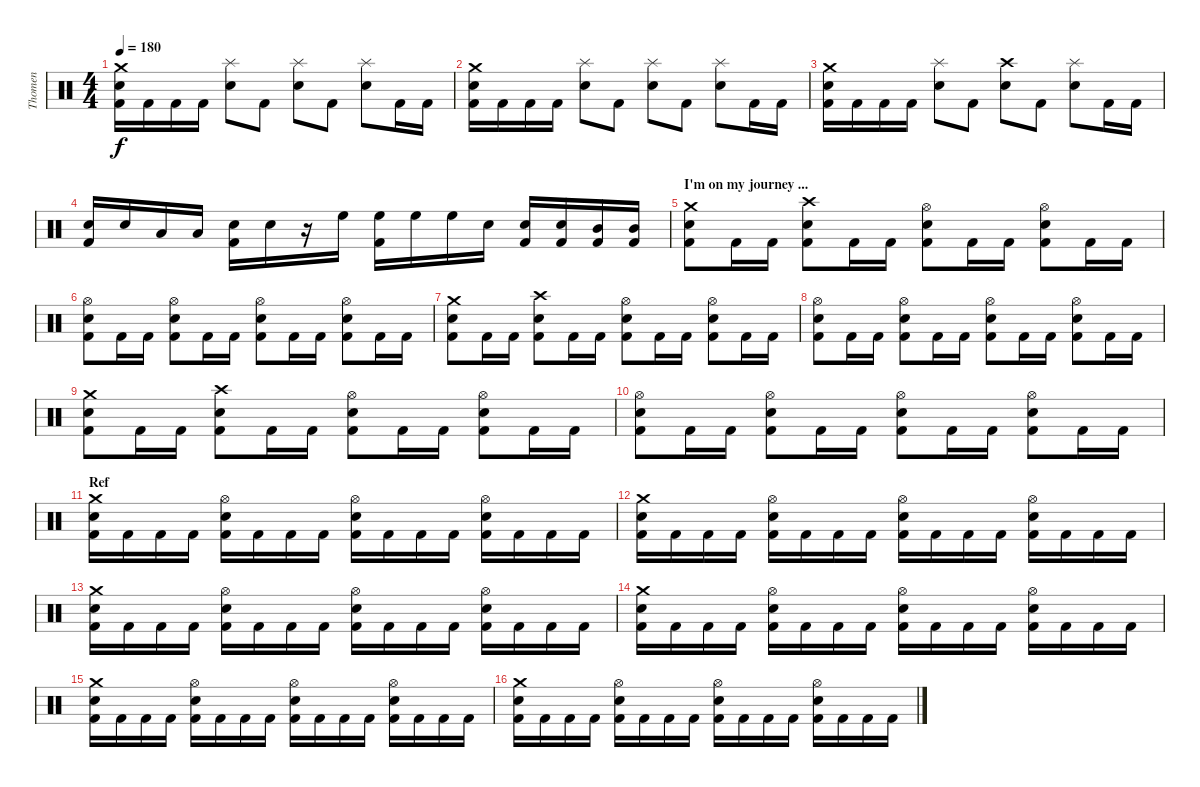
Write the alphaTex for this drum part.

\track ("Thomen" "Thomen") {instrument percussion}
\staff {score}
\articulation defaults
\ts (4 4)
\tempo 180
\clef neutral
\ks c
("Kick (hit) 2" "Electric Snare (hit)" "Crash medium (hit)").16{dy f} "Kick (hit) 2".16 "Kick (hit) 2".16 "Kick (hit) 2".16 ("Electric Snare (hit)" "Splash (hit)").8 "Kick (hit) 2".8 ("Electric Snare (hit)" "Splash (hit)").8 "Kick (hit) 2".8 ("Electric Snare (hit)" "Splash (hit)").8 "Kick (hit) 2".16 "Kick (hit) 2".16 |
("Kick (hit) 2" "Electric Snare (hit)" "Crash medium (hit)").16 "Kick (hit) 2".16 "Kick (hit) 2".16 "Kick (hit) 2".16 ("Electric Snare (hit)" "Splash (hit)").8 "Kick (hit) 2".8 ("Electric Snare (hit)" "Splash (hit)").8 "Kick (hit) 2".8 ("Electric Snare (hit)" "Splash (hit)").8 "Kick (hit) 2".16 "Kick (hit) 2".16 |
("Kick (hit) 2" "Electric Snare (hit)" "Crash medium (hit)").16 "Kick (hit) 2".16 "Kick (hit) 2".16 "Kick (hit) 2".16 ("Electric Snare (hit)" "Splash (hit)").8 "Kick (hit) 2".8 ("Electric Snare (hit)" "Crash high (hit)").8 "Kick (hit) 2".8 ("Electric Snare (hit)" "Splash (hit)").8 "Kick (hit) 2".16 "Kick (hit) 2".16 |
("Kick (hit) 2" "Electric Snare (hit)").16 "Electric Snare (hit)".16 "Low Tom (hit)".16 "Low Tom (hit)".16 ("Kick (hit) 2" "Electric Snare (hit)").16 "Electric Snare (hit)".16 r.16 "High Floor Tom (hit)".16 ("Kick (hit) 2" "High Floor Tom (hit)").16 "High Floor Tom (hit)".16 "High Floor Tom (hit)".16 "Electric Snare (hit)".16 ("Kick (hit) 2" "Electric Snare (hit)").16 ("Kick (hit) 2" "Electric Snare (hit)").16 ("Kick (hit) 2" "Mid Tom (hit)").16 ("Kick (hit) 2" "Mid Tom (hit)").16 |
\section ("" "I'm on my journey ...")
("Kick (hit) 2" "Electric Snare (hit)" "Crash medium (hit)").8 "Kick (hit) 2".16 "Kick (hit) 2".16 ("Kick (hit) 2" "Electric Snare (hit)" "Crash high (hit)").8 "Kick (hit) 2".16 "Kick (hit) 2".16 ("Kick (hit) 2" "Electric Snare (hit)" "Hi-Hat (open)").8 "Kick (hit) 2".16 "Kick (hit) 2".16 ("Kick (hit) 2" "Electric Snare (hit)" "Hi-Hat (open)").8 "Kick (hit) 2".16 "Kick (hit) 2".16 |
("Kick (hit) 2" "Electric Snare (hit)" "Hi-Hat (open)").8 "Kick (hit) 2".16 "Kick (hit) 2".16 ("Kick (hit) 2" "Electric Snare (hit)" "Hi-Hat (open)").8 "Kick (hit) 2".16 "Kick (hit) 2".16 ("Kick (hit) 2" "Electric Snare (hit)" "Hi-Hat (open)").8 "Kick (hit) 2".16 "Kick (hit) 2".16 ("Kick (hit) 2" "Electric Snare (hit)" "Hi-Hat (open)").8 "Kick (hit) 2".16 "Kick (hit) 2".16 |
("Kick (hit) 2" "Electric Snare (hit)" "Crash medium (hit)").8 "Kick (hit) 2".16 "Kick (hit) 2".16 ("Kick (hit) 2" "Electric Snare (hit)" "Crash high (hit)").8 "Kick (hit) 2".16 "Kick (hit) 2".16 ("Kick (hit) 2" "Electric Snare (hit)" "Hi-Hat (open)").8 "Kick (hit) 2".16 "Kick (hit) 2".16 ("Kick (hit) 2" "Electric Snare (hit)" "Hi-Hat (open)").8 "Kick (hit) 2".16 "Kick (hit) 2".16 |
("Kick (hit) 2" "Electric Snare (hit)" "Hi-Hat (open)").8 "Kick (hit) 2".16 "Kick (hit) 2".16 ("Kick (hit) 2" "Electric Snare (hit)" "Hi-Hat (open)").8 "Kick (hit) 2".16 "Kick (hit) 2".16 ("Kick (hit) 2" "Electric Snare (hit)" "Hi-Hat (open)").8 "Kick (hit) 2".16 "Kick (hit) 2".16 ("Kick (hit) 2" "Electric Snare (hit)" "Hi-Hat (open)").8 "Kick (hit) 2".16 "Kick (hit) 2".16 |
("Kick (hit) 2" "Electric Snare (hit)" "Crash medium (hit)").8 "Kick (hit) 2".16 "Kick (hit) 2".16 ("Kick (hit) 2" "Electric Snare (hit)" "Crash high (hit)").8 "Kick (hit) 2".16 "Kick (hit) 2".16 ("Kick (hit) 2" "Electric Snare (hit)" "Hi-Hat (open)").8 "Kick (hit) 2".16 "Kick (hit) 2".16 ("Kick (hit) 2" "Electric Snare (hit)" "Hi-Hat (open)").8 "Kick (hit) 2".16 "Kick (hit) 2".16 |
("Kick (hit) 2" "Electric Snare (hit)" "Hi-Hat (open)").8 "Kick (hit) 2".16 "Kick (hit) 2".16 ("Kick (hit) 2" "Electric Snare (hit)" "Hi-Hat (open)").8 "Kick (hit) 2".16 "Kick (hit) 2".16 ("Kick (hit) 2" "Electric Snare (hit)" "Hi-Hat (open)").8 "Kick (hit) 2".16 "Kick (hit) 2".16 ("Kick (hit) 2" "Electric Snare (hit)" "Hi-Hat (open)").8 "Kick (hit) 2".16 "Kick (hit) 2".16 |
\section ("" "Ref")
("Kick (hit) 2" "Electric Snare (hit)" "Crash medium (hit)").16 "Kick (hit) 2".16 "Kick (hit) 2".16 "Kick (hit) 2".16 ("Kick (hit) 2" "Electric Snare (hit)" "Hi-Hat (open)").16 "Kick (hit) 2".16 "Kick (hit) 2".16 "Kick (hit) 2".16 ("Kick (hit) 2" "Electric Snare (hit)" "Hi-Hat (open)").16 "Kick (hit) 2".16 "Kick (hit) 2".16 "Kick (hit) 2".16 ("Kick (hit) 2" "Electric Snare (hit)" "Hi-Hat (open)").16 "Kick (hit) 2".16 "Kick (hit) 2".16 "Kick (hit) 2".16 |
("Kick (hit) 2" "Electric Snare (hit)" "Crash medium (hit)").16 "Kick (hit) 2".16 "Kick (hit) 2".16 "Kick (hit) 2".16 ("Kick (hit) 2" "Electric Snare (hit)" "Hi-Hat (open)").16 "Kick (hit) 2".16 "Kick (hit) 2".16 "Kick (hit) 2".16 ("Kick (hit) 2" "Electric Snare (hit)" "Hi-Hat (open)").16 "Kick (hit) 2".16 "Kick (hit) 2".16 "Kick (hit) 2".16 ("Kick (hit) 2" "Electric Snare (hit)" "Hi-Hat (open)").16 "Kick (hit) 2".16 "Kick (hit) 2".16 "Kick (hit) 2".16 |
("Kick (hit) 2" "Electric Snare (hit)" "Crash medium (hit)").16 "Kick (hit) 2".16 "Kick (hit) 2".16 "Kick (hit) 2".16 ("Kick (hit) 2" "Electric Snare (hit)" "Hi-Hat (open)").16 "Kick (hit) 2".16 "Kick (hit) 2".16 "Kick (hit) 2".16 ("Kick (hit) 2" "Electric Snare (hit)" "Hi-Hat (open)").16 "Kick (hit) 2".16 "Kick (hit) 2".16 "Kick (hit) 2".16 ("Kick (hit) 2" "Electric Snare (hit)" "Hi-Hat (open)").16 "Kick (hit) 2".16 "Kick (hit) 2".16 "Kick (hit) 2".16 |
("Kick (hit) 2" "Electric Snare (hit)" "Crash medium (hit)").16 "Kick (hit) 2".16 "Kick (hit) 2".16 "Kick (hit) 2".16 ("Kick (hit) 2" "Electric Snare (hit)" "Hi-Hat (open)").16 "Kick (hit) 2".16 "Kick (hit) 2".16 "Kick (hit) 2".16 ("Kick (hit) 2" "Electric Snare (hit)" "Hi-Hat (open)").16 "Kick (hit) 2".16 "Kick (hit) 2".16 "Kick (hit) 2".16 ("Kick (hit) 2" "Electric Snare (hit)" "Hi-Hat (open)").16 "Kick (hit) 2".16 "Kick (hit) 2".16 "Kick (hit) 2".16 |
("Kick (hit) 2" "Electric Snare (hit)" "Crash medium (hit)").16 "Kick (hit) 2".16 "Kick (hit) 2".16 "Kick (hit) 2".16 ("Kick (hit) 2" "Electric Snare (hit)" "Hi-Hat (open)").16 "Kick (hit) 2".16 "Kick (hit) 2".16 "Kick (hit) 2".16 ("Kick (hit) 2" "Electric Snare (hit)" "Hi-Hat (open)").16 "Kick (hit) 2".16 "Kick (hit) 2".16 "Kick (hit) 2".16 ("Kick (hit) 2" "Electric Snare (hit)" "Hi-Hat (open)").16 "Kick (hit) 2".16 "Kick (hit) 2".16 "Kick (hit) 2".16 |
("Kick (hit) 2" "Electric Snare (hit)" "Crash medium (hit)").16 "Kick (hit) 2".16 "Kick (hit) 2".16 "Kick (hit) 2".16 ("Kick (hit) 2" "Electric Snare (hit)" "Hi-Hat (open)").16 "Kick (hit) 2".16 "Kick (hit) 2".16 "Kick (hit) 2".16 ("Kick (hit) 2" "Electric Snare (hit)" "Hi-Hat (open)").16 "Kick (hit) 2".16 "Kick (hit) 2".16 "Kick (hit) 2".16 ("Kick (hit) 2" "Electric Snare (hit)" "Hi-Hat (open)").16 "Kick (hit) 2".16 "Kick (hit) 2".16 "Kick (hit) 2".16
